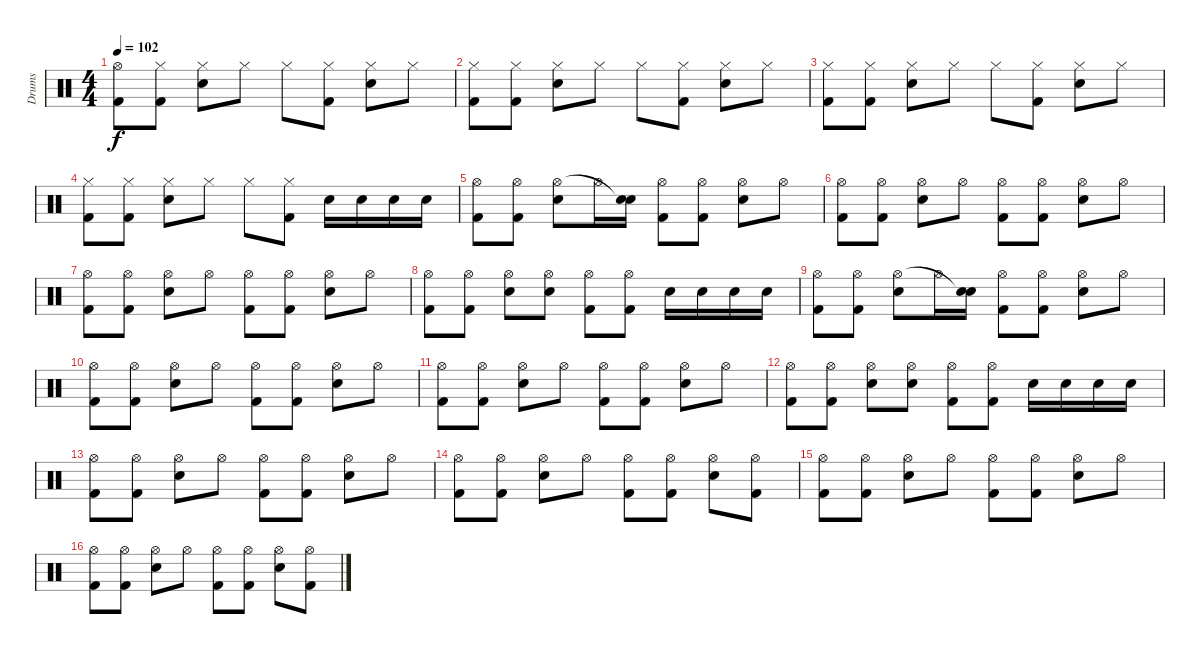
\track ("Drums" "Drums") {instrument percussion}
\staff {score}
\articulation defaults
\ts (4 4)
\tempo 102
\clef neutral
\ks c
("Kick (hit) 2" "Hi-Hat (open)").8{dy f} ("Kick (hit) 2" "Hi-Hat (closed)").8 ("Electric Snare (hit)" "Hi-Hat (closed)").8 "Hi-Hat (closed)".8 "Hi-Hat (closed)".8 ("Kick (hit) 2" "Hi-Hat (closed)").8 ("Electric Snare (hit)" "Hi-Hat (closed)").8 "Hi-Hat (closed)".8 |
("Kick (hit) 2" "Hi-Hat (closed)").8 ("Kick (hit) 2" "Hi-Hat (closed)").8 ("Electric Snare (hit)" "Hi-Hat (closed)").8 "Hi-Hat (closed)".8 "Hi-Hat (closed)".8 ("Kick (hit) 2" "Hi-Hat (closed)").8 ("Electric Snare (hit)" "Hi-Hat (closed)").8 "Hi-Hat (closed)".8 |
("Kick (hit) 2" "Hi-Hat (closed)").8 ("Kick (hit) 2" "Hi-Hat (closed)").8 ("Electric Snare (hit)" "Hi-Hat (closed)").8 "Hi-Hat (closed)".8 "Hi-Hat (closed)".8 ("Kick (hit) 2" "Hi-Hat (closed)").8 ("Electric Snare (hit)" "Hi-Hat (closed)").8 "Hi-Hat (closed)".8 |
("Kick (hit) 2" "Hi-Hat (closed)").8 ("Kick (hit) 2" "Hi-Hat (closed)").8 ("Electric Snare (hit)" "Hi-Hat (closed)").8 "Hi-Hat (closed)".8 "Hi-Hat (closed)".8 ("Kick (hit) 2" "Hi-Hat (closed)").8 "Electric Snare (hit)".16 "Electric Snare (hit)".16 "Electric Snare (hit)".16 "Electric Snare (hit)".16 |
("Kick (hit) 2" "Hi-Hat (open)").8 ("Kick (hit) 2" "Hi-Hat (open)").8 ("Electric Snare (hit)" "Hi-Hat (open)").8 "Hi-Hat (open)".16 ("Electric Snare (hit)" "Snare (hit)"{t}).16 ("Kick (hit) 2" "Hi-Hat (open)").8 ("Kick (hit) 2" "Hi-Hat (open)").8 ("Electric Snare (hit)" "Hi-Hat (open)").8 "Hi-Hat (open)".8 |
("Kick (hit) 2" "Hi-Hat (open)").8 ("Kick (hit) 2" "Hi-Hat (open)").8 ("Electric Snare (hit)" "Hi-Hat (open)").8 "Hi-Hat (open)".8 ("Kick (hit) 2" "Hi-Hat (open)").8 ("Kick (hit) 2" "Hi-Hat (open)").8 ("Electric Snare (hit)" "Hi-Hat (open)").8 "Hi-Hat (open)".8 |
("Kick (hit) 2" "Hi-Hat (open)").8 ("Kick (hit) 2" "Hi-Hat (open)").8 ("Electric Snare (hit)" "Hi-Hat (open)").8 "Hi-Hat (open)".8 ("Kick (hit) 2" "Hi-Hat (open)").8 ("Kick (hit) 2" "Hi-Hat (open)").8 ("Electric Snare (hit)" "Hi-Hat (open)").8 "Hi-Hat (open)".8 |
("Kick (hit) 2" "Hi-Hat (open)").8 ("Kick (hit) 2" "Hi-Hat (open)").8 ("Electric Snare (hit)" "Hi-Hat (open)").8 ("Electric Snare (hit)" "Hi-Hat (open)").8 ("Kick (hit) 2" "Hi-Hat (open)").8 ("Kick (hit) 2" "Hi-Hat (open)").8 "Electric Snare (hit)".16 "Electric Snare (hit)".16 "Electric Snare (hit)".16 "Electric Snare (hit)".16 |
("Kick (hit) 2" "Hi-Hat (open)").8 ("Kick (hit) 2" "Hi-Hat (open)").8 ("Electric Snare (hit)" "Hi-Hat (open)").8 "Hi-Hat (open)".16 ("Electric Snare (hit)" "Snare (hit)"{t}).16 ("Kick (hit) 2" "Hi-Hat (open)").8 ("Kick (hit) 2" "Hi-Hat (open)").8 ("Electric Snare (hit)" "Hi-Hat (open)").8 "Hi-Hat (open)".8 |
("Kick (hit) 2" "Hi-Hat (open)").8 ("Kick (hit) 2" "Hi-Hat (open)").8 ("Electric Snare (hit)" "Hi-Hat (open)").8 "Hi-Hat (open)".8 ("Kick (hit) 2" "Hi-Hat (open)").8 ("Kick (hit) 2" "Hi-Hat (open)").8 ("Electric Snare (hit)" "Hi-Hat (open)").8 "Hi-Hat (open)".8 |
("Kick (hit) 2" "Hi-Hat (open)").8 ("Kick (hit) 2" "Hi-Hat (open)").8 ("Electric Snare (hit)" "Hi-Hat (open)").8 "Hi-Hat (open)".8 ("Kick (hit) 2" "Hi-Hat (open)").8 ("Kick (hit) 2" "Hi-Hat (open)").8 ("Electric Snare (hit)" "Hi-Hat (open)").8 "Hi-Hat (open)".8 |
("Kick (hit) 2" "Hi-Hat (open)").8 ("Kick (hit) 2" "Hi-Hat (open)").8 ("Electric Snare (hit)" "Hi-Hat (open)").8 ("Electric Snare (hit)" "Hi-Hat (open)").8 ("Kick (hit) 2" "Hi-Hat (open)").8 ("Kick (hit) 2" "Hi-Hat (open)").8 "Electric Snare (hit)".16 "Electric Snare (hit)".16 "Electric Snare (hit)".16 "Electric Snare (hit)".16 |
("Kick (hit) 2" "Hi-Hat (open)").8 ("Kick (hit) 2" "Hi-Hat (open)").8 ("Electric Snare (hit)" "Hi-Hat (open)").8 "Hi-Hat (open)".8 ("Kick (hit) 2" "Hi-Hat (open)").8 ("Kick (hit) 2" "Hi-Hat (open)").8 ("Electric Snare (hit)" "Hi-Hat (open)").8 "Hi-Hat (open)".8 |
("Kick (hit) 2" "Hi-Hat (open)").8 ("Kick (hit) 2" "Hi-Hat (open)").8 ("Electric Snare (hit)" "Hi-Hat (open)").8 "Hi-Hat (open)".8 ("Kick (hit) 2" "Hi-Hat (open)").8 ("Kick (hit) 2" "Hi-Hat (open)").8 ("Electric Snare (hit)" "Hi-Hat (open)").8 ("Kick (hit) 2" "Hi-Hat (open)").8 |
("Kick (hit) 2" "Hi-Hat (open)").8 ("Kick (hit) 2" "Hi-Hat (open)").8 ("Electric Snare (hit)" "Hi-Hat (open)").8 "Hi-Hat (open)".8 ("Kick (hit) 2" "Hi-Hat (open)").8 ("Kick (hit) 2" "Hi-Hat (open)").8 ("Electric Snare (hit)" "Hi-Hat (open)").8 "Hi-Hat (open)".8 |
("Kick (hit) 2" "Hi-Hat (open)").8 ("Kick (hit) 2" "Hi-Hat (open)").8 ("Electric Snare (hit)" "Hi-Hat (open)").8 "Hi-Hat (open)".8 ("Kick (hit) 2" "Hi-Hat (open)").8 ("Kick (hit) 2" "Hi-Hat (open)").8 ("Electric Snare (hit)" "Hi-Hat (open)").8 ("Kick (hit) 2" "Hi-Hat (open)").8
